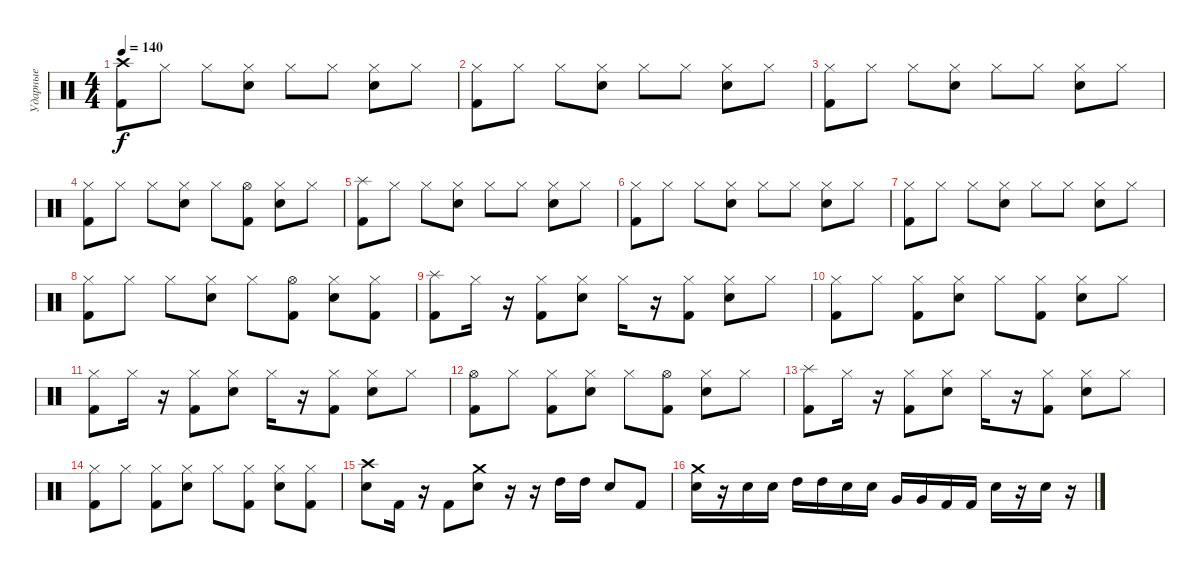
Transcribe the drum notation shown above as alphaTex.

\track ("Ударные" "Ударные") {instrument percussion}
\staff {score}
\articulation defaults
\ts (4 4)
\tempo 140
\clef neutral
\ks c
("Crash high (hit)" "Kick (hit) 2").8{dy f} "Hi-Hat (closed)".8 "Hi-Hat (closed)".8 ("Hi-Hat (closed)" "Electric Snare (hit)").8 "Hi-Hat (closed)".8 "Hi-Hat (closed)".8 ("Hi-Hat (closed)" "Electric Snare (hit)").8 "Hi-Hat (closed)".8 |
("Hi-Hat (closed)" "Kick (hit) 2").8 "Hi-Hat (closed)".8 "Hi-Hat (closed)".8 ("Hi-Hat (closed)" "Electric Snare (hit)").8 "Hi-Hat (closed)".8 "Hi-Hat (closed)".8 ("Hi-Hat (closed)" "Electric Snare (hit)").8 "Hi-Hat (closed)".8 |
("Hi-Hat (closed)" "Kick (hit) 2").8 "Hi-Hat (closed)".8 "Hi-Hat (closed)".8 ("Hi-Hat (closed)" "Electric Snare (hit)").8 "Hi-Hat (closed)".8 "Hi-Hat (closed)".8 ("Hi-Hat (closed)" "Electric Snare (hit)").8 "Hi-Hat (closed)".8 |
("Hi-Hat (closed)" "Kick (hit) 2").8 "Hi-Hat (closed)".8 "Hi-Hat (closed)".8 ("Hi-Hat (closed)" "Electric Snare (hit)").8 "Hi-Hat (closed)".8 ("Hi-Hat (open)" "Kick (hit) 2").8 ("Hi-Hat (closed)" "Electric Snare (hit)").8 "Hi-Hat (closed)".8 |
("Splash (hit)" "Kick (hit) 2").8 "Hi-Hat (closed)".8 "Hi-Hat (closed)".8 ("Hi-Hat (closed)" "Electric Snare (hit)").8 "Hi-Hat (closed)".8 "Hi-Hat (closed)".8 ("Hi-Hat (closed)" "Electric Snare (hit)").8 "Hi-Hat (closed)".8 |
("Hi-Hat (closed)" "Kick (hit) 2").8 "Hi-Hat (closed)".8 "Hi-Hat (closed)".8 ("Hi-Hat (closed)" "Electric Snare (hit)").8 "Hi-Hat (closed)".8 "Hi-Hat (closed)".8 ("Hi-Hat (closed)" "Electric Snare (hit)").8 "Hi-Hat (closed)".8 |
("Hi-Hat (closed)" "Kick (hit) 2").8 "Hi-Hat (closed)".8 "Hi-Hat (closed)".8 ("Hi-Hat (closed)" "Electric Snare (hit)").8 "Hi-Hat (closed)".8 "Hi-Hat (closed)".8 ("Hi-Hat (closed)" "Electric Snare (hit)").8 "Hi-Hat (closed)".8 |
("Hi-Hat (closed)" "Kick (hit) 2").8 "Hi-Hat (closed)".8 "Hi-Hat (closed)".8 ("Hi-Hat (closed)" "Electric Snare (hit)").8 "Hi-Hat (closed)".8 ("Hi-Hat (open)" "Kick (hit) 2").8 ("Hi-Hat (closed)" "Electric Snare (hit)").8 ("Hi-Hat (closed)" "Kick (hit) 2").8 |
("Splash (hit)" "Kick (hit) 2").8 "Hi-Hat (closed)".16 r.16 ("Hi-Hat (closed)" "Kick (hit) 2").8 ("Hi-Hat (closed)" "Electric Snare (hit)").8 "Hi-Hat (closed)".16 r.16 ("Hi-Hat (closed)" "Kick (hit) 2").8 ("Hi-Hat (closed)" "Electric Snare (hit)").8 "Hi-Hat (closed)".8 |
("Hi-Hat (closed)" "Kick (hit) 2").8 "Hi-Hat (closed)".8 ("Hi-Hat (closed)" "Kick (hit) 2").8 ("Hi-Hat (closed)" "Electric Snare (hit)").8 "Hi-Hat (closed)".8 ("Hi-Hat (closed)" "Kick (hit) 2").8 ("Hi-Hat (closed)" "Electric Snare (hit)").8 "Hi-Hat (closed)".8 |
("Hi-Hat (closed)" "Kick (hit) 2").8 "Hi-Hat (closed)".16 r.16 ("Hi-Hat (closed)" "Kick (hit) 2").8 ("Hi-Hat (closed)" "Electric Snare (hit)").8 "Hi-Hat (closed)".16 r.16 ("Hi-Hat (closed)" "Kick (hit) 2").8 ("Hi-Hat (closed)" "Electric Snare (hit)").8 "Hi-Hat (closed)".8 |
("Hi-Hat (open)" "Kick (hit) 2").8 "Hi-Hat (closed)".8 ("Hi-Hat (closed)" "Kick (hit) 2").8 ("Hi-Hat (closed)" "Electric Snare (hit)").8 "Hi-Hat (closed)".8 ("Hi-Hat (open)" "Kick (hit) 2").8 ("Hi-Hat (closed)" "Electric Snare (hit)").8 "Hi-Hat (closed)".8 |
("Splash (hit)" "Kick (hit) 2").8 "Hi-Hat (closed)".16 r.16 ("Hi-Hat (closed)" "Kick (hit) 2").8 ("Hi-Hat (closed)" "Electric Snare (hit)").8 "Hi-Hat (closed)".16 r.16 ("Hi-Hat (closed)" "Kick (hit) 2").8 ("Hi-Hat (closed)" "Electric Snare (hit)").8 "Hi-Hat (closed)".8 |
("Hi-Hat (closed)" "Kick (hit) 2").8 "Hi-Hat (closed)".8 ("Hi-Hat (closed)" "Kick (hit) 2").8 ("Hi-Hat (closed)" "Electric Snare (hit)").8 "Hi-Hat (closed)".8 ("Hi-Hat (closed)" "Kick (hit) 2").8 ("Hi-Hat (closed)" "Electric Snare (hit)").8 ("Hi-Hat (closed)" "Kick (hit) 2").8 |
("Crash high (hit)" "Electric Snare (hit)").8 "Kick (hit) 2".16 r.16 "Kick (hit) 2".8 ("Crash medium (hit)" "Electric Snare (hit)").8 r.16 r.16 "High Tom (hit)".16 "High Tom (hit)".16 "Electric Snare (hit)".8 "Kick (hit) 2".8 |
("Crash medium (hit)" "Electric Snare (hit)").16 r.16 "Electric Snare (hit)".16 "Electric Snare (hit)".16 "High Tom (hit)".16 "High Tom (hit)".16 "Electric Snare (hit)".16 "Electric Snare (hit)".16 "Very Low Tom (hit)".16 "Very Low Tom (hit)".16 "Kick (hit) 2".16 "Kick (hit) 2".16 "Electric Snare (hit)".16 r.16 "Electric Snare (hit)".16 r.16
